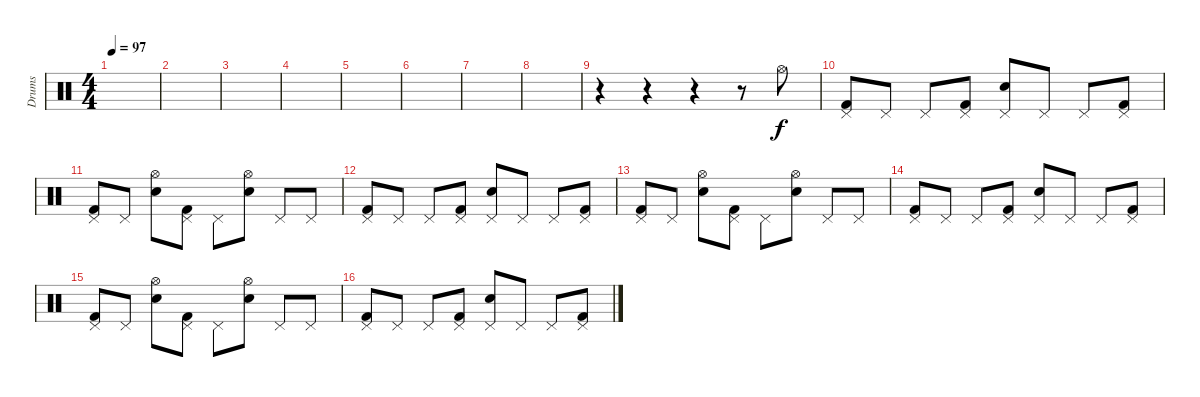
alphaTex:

\track ("Drums" "Drums") {instrument percussion}
\staff {score}
\articulation defaults
\ts (4 4)
\tempo 97
\clef neutral
\ks c
|
|
|
|
|
|
|
|
r.4{volume 11} r.4 r.4 r.8 "Hi-Hat (open)".8 |
("Pedal Hi-Hat (hit)" "Kick (hit) 2").8 "Pedal Hi-Hat (hit)".8 "Pedal Hi-Hat (hit)".8 ("Pedal Hi-Hat (hit)" "Kick (hit) 2").8 ("Pedal Hi-Hat (hit)" "Electric Snare (hit)").8 "Pedal Hi-Hat (hit)".8 "Pedal Hi-Hat (hit)".8 ("Pedal Hi-Hat (hit)" "Kick (hit) 2").8 |
("Pedal Hi-Hat (hit)" "Kick (hit) 2").8 "Pedal Hi-Hat (hit)".8 ("Hi-Hat (open)" "Electric Snare (hit)").8 ("Pedal Hi-Hat (hit)" "Kick (hit) 2").8 "Pedal Hi-Hat (hit)".8 ("Hi-Hat (open)" "Electric Snare (hit)").8 "Pedal Hi-Hat (hit)".8 "Pedal Hi-Hat (hit)".8 |
("Pedal Hi-Hat (hit)" "Kick (hit) 2").8 "Pedal Hi-Hat (hit)".8 "Pedal Hi-Hat (hit)".8 ("Pedal Hi-Hat (hit)" "Kick (hit) 2").8 ("Pedal Hi-Hat (hit)" "Electric Snare (hit)").8 "Pedal Hi-Hat (hit)".8 "Pedal Hi-Hat (hit)".8 ("Pedal Hi-Hat (hit)" "Kick (hit) 2").8 |
("Pedal Hi-Hat (hit)" "Kick (hit) 2").8 "Pedal Hi-Hat (hit)".8 ("Hi-Hat (open)" "Electric Snare (hit)").8 ("Pedal Hi-Hat (hit)" "Kick (hit) 2").8 "Pedal Hi-Hat (hit)".8 ("Hi-Hat (open)" "Electric Snare (hit)").8 "Pedal Hi-Hat (hit)".8 "Pedal Hi-Hat (hit)".8 |
("Pedal Hi-Hat (hit)" "Kick (hit) 2").8 "Pedal Hi-Hat (hit)".8 "Pedal Hi-Hat (hit)".8 ("Pedal Hi-Hat (hit)" "Kick (hit) 2").8 ("Pedal Hi-Hat (hit)" "Electric Snare (hit)").8 "Pedal Hi-Hat (hit)".8 "Pedal Hi-Hat (hit)".8 ("Pedal Hi-Hat (hit)" "Kick (hit) 2").8 |
("Pedal Hi-Hat (hit)" "Kick (hit) 2").8 "Pedal Hi-Hat (hit)".8 ("Hi-Hat (open)" "Electric Snare (hit)").8 ("Pedal Hi-Hat (hit)" "Kick (hit) 2").8 "Pedal Hi-Hat (hit)".8 ("Hi-Hat (open)" "Electric Snare (hit)").8 "Pedal Hi-Hat (hit)".8 "Pedal Hi-Hat (hit)".8 |
("Pedal Hi-Hat (hit)" "Kick (hit) 2").8 "Pedal Hi-Hat (hit)".8 "Pedal Hi-Hat (hit)".8 ("Pedal Hi-Hat (hit)" "Kick (hit) 2").8 ("Pedal Hi-Hat (hit)" "Electric Snare (hit)").8 "Pedal Hi-Hat (hit)".8 "Pedal Hi-Hat (hit)".8 ("Pedal Hi-Hat (hit)" "Kick (hit) 2").8
